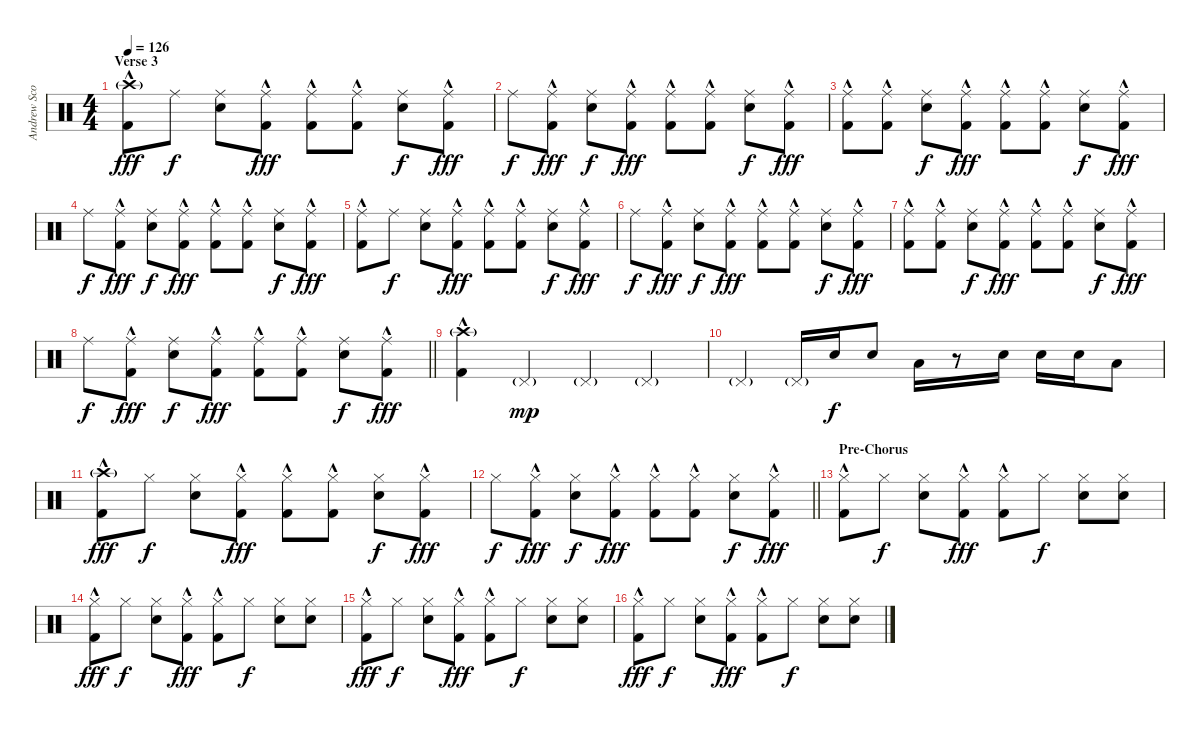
\track ("Andrew Scott" "Andrew Sco") {instrument percussion}
\staff {score}
\articulation defaults
\ts (4 4)
\section ("" "Verse 3")
\tempo 126
\clef neutral
\ks c
("Crash high (hit)"{g} "Kick (hit) 2"{hac}).8{dy fff} "Ride (middle)".8{dy f} ("Ride (middle)" "Snare (hit) 2").8 ("Ride (middle)" "Kick (hit) 2"{hac}).8{dy fff} ("Ride (middle)" "Kick (hit) 2"{hac}).8 ("Ride (middle)" "Kick (hit) 2"{hac}).8 ("Ride (middle)" "Snare (hit) 2").8{dy f} ("Ride (middle)" "Kick (hit) 2"{hac}).8{dy fff} |
"Ride (middle)".8{dy f} ("Ride (middle)" "Kick (hit) 2"{hac}).8{dy fff} ("Ride (middle)" "Snare (hit) 2").8{dy f} ("Ride (middle)" "Kick (hit) 2"{hac}).8{dy fff} ("Ride (middle)" "Kick (hit) 2"{hac}).8 ("Ride (middle)" "Kick (hit) 2"{hac}).8 ("Ride (middle)" "Snare (hit) 2").8{dy f} ("Ride (middle)" "Kick (hit) 2"{hac}).8{dy fff} |
("Ride (middle)" "Kick (hit) 2"{hac}).8 ("Ride (middle)" "Kick (hit) 2"{hac}).8 ("Ride (middle)" "Snare (hit) 2").8{dy f} ("Ride (middle)" "Kick (hit) 2"{hac}).8{dy fff} ("Ride (middle)" "Kick (hit) 2"{hac}).8 ("Ride (middle)" "Kick (hit) 2"{hac}).8 ("Ride (middle)" "Snare (hit) 2").8{dy f} ("Ride (middle)" "Kick (hit) 2"{hac}).8{dy fff} |
"Ride (middle)".8{dy f} ("Ride (middle)" "Kick (hit) 2"{hac}).8{dy fff} ("Ride (middle)" "Snare (hit) 2").8{dy f} ("Ride (middle)" "Kick (hit) 2"{hac}).8{dy fff} ("Ride (middle)" "Kick (hit) 2"{hac}).8 ("Ride (middle)" "Kick (hit) 2"{hac}).8 ("Ride (middle)" "Snare (hit) 2").8{dy f} ("Ride (middle)" "Kick (hit) 2"{hac}).8{dy fff} |
("Ride (middle)" "Kick (hit) 2"{hac}).8 "Ride (middle)".8{dy f} ("Ride (middle)" "Snare (hit) 2").8 ("Ride (middle)" "Kick (hit) 2"{hac}).8{dy fff} ("Ride (middle)" "Kick (hit) 2"{hac}).8 ("Ride (middle)" "Kick (hit) 2"{hac}).8 ("Ride (middle)" "Snare (hit) 2").8{dy f} ("Ride (middle)" "Kick (hit) 2"{hac}).8{dy fff} |
"Ride (middle)".8{dy f} ("Ride (middle)" "Kick (hit) 2"{hac}).8{dy fff} ("Ride (middle)" "Snare (hit) 2").8{dy f} ("Ride (middle)" "Kick (hit) 2"{hac}).8{dy fff} ("Ride (middle)" "Kick (hit) 2"{hac}).8 ("Ride (middle)" "Kick (hit) 2"{hac}).8 ("Ride (middle)" "Snare (hit) 2").8{dy f} ("Ride (middle)" "Kick (hit) 2"{hac}).8{dy fff} |
("Ride (middle)" "Kick (hit) 2"{hac}).8 ("Ride (middle)" "Kick (hit) 2"{hac}).8 ("Ride (middle)" "Snare (hit) 2").8{dy f} ("Ride (middle)" "Kick (hit) 2"{hac}).8{dy fff} ("Ride (middle)" "Kick (hit) 2"{hac}).8 ("Ride (middle)" "Kick (hit) 2"{hac}).8 ("Ride (middle)" "Snare (hit) 2").8{dy f} ("Ride (middle)" "Kick (hit) 2"{hac}).8{dy fff} |
\barLineRight lightlight "Ride (middle)".8{dy f}
("Ride (middle)" "Kick (hit) 2"{hac}).8{dy fff} ("Ride (middle)" "Snare (hit) 2").8{dy f} ("Ride (middle)" "Kick (hit) 2"{hac}).8{dy fff} ("Ride (middle)" "Kick (hit) 2"{hac}).8 ("Ride (middle)" "Kick (hit) 2"{hac}).8 ("Ride (middle)" "Snare (hit) 2").8{dy f} ("Ride (middle)" "Kick (hit) 2"{hac}).8{dy fff} |
("Crash high (hit)"{g} "Kick (hit) 2"{hac}).4 "Pedal Hi-Hat (hit)"{g}.4{dy mp} "Pedal Hi-Hat (hit)"{g}.4 "Pedal Hi-Hat (hit)"{g}.4 |
"Pedal Hi-Hat (hit)"{g}.4 "Pedal Hi-Hat (hit)"{g}.16 "Snare (hit) 2".16{dy f} "Snare (hit) 2".8 "Low Tom (hit)".16 r.8 "Snare (hit) 2".16 "Snare (hit) 2".16 "Snare (hit) 2".16 "Low Tom (hit)".8 |
("Crash high (hit)"{g} "Kick (hit) 2"{hac}).8{dy fff} "Hi-Hat (closed)".8{dy f} ("Hi-Hat (closed)" "Snare (hit) 2").8 ("Hi-Hat (closed)" "Kick (hit) 2"{hac}).8{dy fff} ("Hi-Hat (closed)" "Kick (hit) 2"{hac}).8 ("Hi-Hat (closed)" "Kick (hit) 2"{hac}).8 ("Hi-Hat (closed)" "Snare (hit) 2").8{dy f} ("Hi-Hat (closed)" "Kick (hit) 2"{hac}).8{dy fff} |
\barLineRight lightlight "Hi-Hat (closed)".8{dy f}
("Hi-Hat (closed)" "Kick (hit) 2"{hac}).8{dy fff} ("Hi-Hat (closed)" "Snare (hit) 2").8{dy f} ("Hi-Hat (closed)" "Kick (hit) 2"{hac}).8{dy fff} ("Hi-Hat (closed)" "Kick (hit) 2"{hac}).8 ("Hi-Hat (closed)" "Kick (hit) 2"{hac}).8 ("Hi-Hat (closed)" "Snare (hit) 2").8{dy f} ("Hi-Hat (closed)" "Kick (hit) 2"{hac}).8{dy fff} |
\section ("" "Pre-Chorus")
("Hi-Hat (closed)" "Kick (hit) 2"{hac}).8 "Hi-Hat (closed)".8{dy f} ("Hi-Hat (closed)" "Snare (hit) 2").8 ("Hi-Hat (closed)" "Kick (hit) 2"{hac}).8{dy fff} ("Hi-Hat (closed)" "Kick (hit) 2"{hac}).8 "Hi-Hat (closed)".8{dy f} ("Hi-Hat (closed)" "Snare (hit) 2").8 ("Hi-Hat (closed)" "Snare (hit) 2").8 |
("Hi-Hat (closed)" "Kick (hit) 2"{hac}).8{dy fff} "Hi-Hat (closed)".8{dy f} ("Hi-Hat (closed)" "Snare (hit) 2").8 ("Hi-Hat (closed)" "Kick (hit) 2"{hac}).8{dy fff} ("Hi-Hat (closed)" "Kick (hit) 2"{hac}).8 "Hi-Hat (closed)".8{dy f} ("Hi-Hat (closed)" "Snare (hit) 2").8 ("Hi-Hat (closed)" "Snare (hit) 2").8 |
("Hi-Hat (closed)" "Kick (hit) 2"{hac}).8{dy fff} "Hi-Hat (closed)".8{dy f} ("Hi-Hat (closed)" "Snare (hit) 2").8 ("Hi-Hat (closed)" "Kick (hit) 2"{hac}).8{dy fff} ("Hi-Hat (closed)" "Kick (hit) 2"{hac}).8 "Hi-Hat (closed)".8{dy f} ("Hi-Hat (closed)" "Snare (hit) 2").8 ("Hi-Hat (closed)" "Snare (hit) 2").8 |
("Hi-Hat (closed)" "Kick (hit) 2"{hac}).8{dy fff} "Hi-Hat (closed)".8{dy f} ("Hi-Hat (closed)" "Snare (hit) 2").8 ("Hi-Hat (closed)" "Kick (hit) 2"{hac}).8{dy fff} ("Hi-Hat (closed)" "Kick (hit) 2"{hac}).8 "Hi-Hat (closed)".8{dy f} ("Hi-Hat (closed)" "Snare (hit) 2").8 ("Hi-Hat (closed)" "Snare (hit) 2").8
